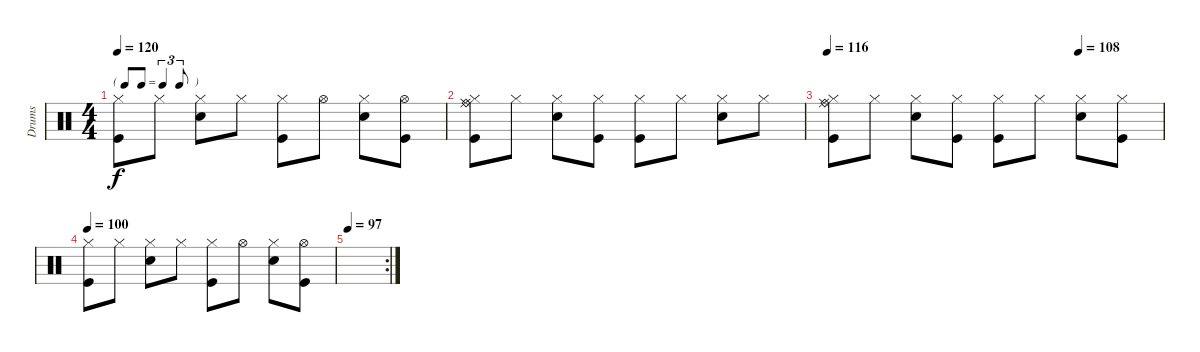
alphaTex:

\track ("Drums" "Drums") {instrument percussion}
\staff {score}
\articulation defaults
\ts (4 4)
\tf triplet8th
\tempo 120
\clef neutral
\ks c
("Kick (hit)" "Hi-Hat (closed)").8{dy f} "Hi-Hat (closed)".8 ("Snare (hit) 2" "Hi-Hat (closed)").8 "Hi-Hat (closed)".8 ("Kick (hit)" "Hi-Hat (closed)").8 "Hi-Hat (open)".8 ("Snare (hit) 2" "Hi-Hat (closed)").8 ("Kick (hit)" "Hi-Hat (open)").8 |
("Kick (hit)" "Hi-Hat (closed)" "Ride (middle)" "Ride (bell)").8 "Hi-Hat (closed)".8 ("Snare (hit) 2" "Hi-Hat (closed)").8 ("Kick (hit)" "Hi-Hat (closed)").8 ("Kick (hit)" "Hi-Hat (closed)").8 "Hi-Hat (closed)".8 ("Snare (hit) 2" "Hi-Hat (closed)").8 "Hi-Hat (closed)".8 |
\tempo 116
\tempo (108 0.75)
("Kick (hit)" "Hi-Hat (closed)" "Ride (middle)" "Ride (bell)").8 "Hi-Hat (closed)".8 ("Snare (hit) 2" "Hi-Hat (closed)").8 ("Kick (hit)" "Hi-Hat (closed)").8 ("Kick (hit)" "Hi-Hat (closed)").8 "Hi-Hat (closed)".8 ("Snare (hit) 2" "Hi-Hat (closed)").8 ("Kick (hit)" "Hi-Hat (closed)").8 |
\tempo 100
("Kick (hit)" "Hi-Hat (closed)").8 "Hi-Hat (closed)".8 ("Snare (hit) 2" "Hi-Hat (closed)").8 "Hi-Hat (closed)".8 ("Kick (hit)" "Hi-Hat (closed)").8 "Hi-Hat (open)".8 ("Snare (hit) 2" "Hi-Hat (closed)").8 ("Kick (hit)" "Hi-Hat (open)").8 |
\rc 2
\tempo 97
